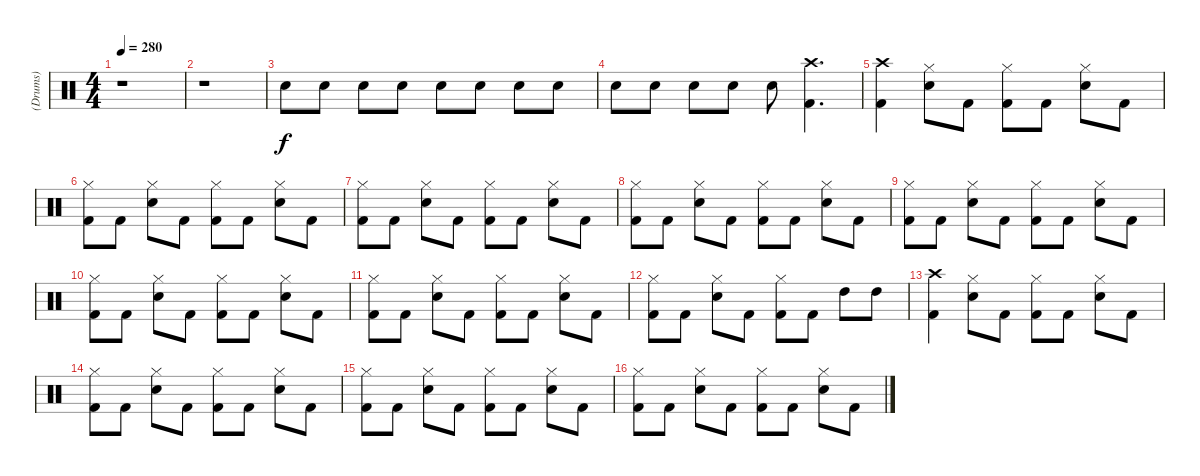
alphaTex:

\track ("(Drums)" "(Drums)") {instrument percussion}
\staff {score}
\articulation defaults
\ts (4 4)
\tempo 280
\clef neutral
\ks c
r.1{dy f} |
r.1 |
"Snare (hit) 2".8 "Snare (hit) 2".8 "Snare (hit) 2".8 "Snare (hit) 2".8 "Snare (hit) 2".8 "Snare (hit) 2".8 "Snare (hit) 2".8 "Snare (hit) 2".8 |
"Snare (hit) 2".8 "Snare (hit) 2".8 "Snare (hit) 2".8 "Snare (hit) 2".8 "Snare (hit) 2".8 ("Kick (hit) 2" "Crash high (hit)").4{d} |
("Kick (hit) 2" "Crash high (hit)").4 ("Hi-Hat (closed)" "Snare (hit) 2").8 "Kick (hit) 2".8 ("Hi-Hat (closed)" "Kick (hit) 2").8 "Kick (hit) 2".8 ("Hi-Hat (closed)" "Snare (hit) 2").8 "Kick (hit) 2".8 |
("Hi-Hat (closed)" "Kick (hit) 2").8 "Kick (hit) 2".8 ("Hi-Hat (closed)" "Snare (hit) 2").8 "Kick (hit) 2".8 ("Hi-Hat (closed)" "Kick (hit) 2").8 "Kick (hit) 2".8 ("Hi-Hat (closed)" "Snare (hit) 2").8 "Kick (hit) 2".8 |
("Hi-Hat (closed)" "Kick (hit) 2").8 "Kick (hit) 2".8 ("Hi-Hat (closed)" "Snare (hit) 2").8 "Kick (hit) 2".8 ("Hi-Hat (closed)" "Kick (hit) 2").8 "Kick (hit) 2".8 ("Hi-Hat (closed)" "Snare (hit) 2").8 "Kick (hit) 2".8 |
("Hi-Hat (closed)" "Kick (hit) 2").8 "Kick (hit) 2".8 ("Hi-Hat (closed)" "Snare (hit) 2").8 "Kick (hit) 2".8 ("Hi-Hat (closed)" "Kick (hit) 2").8 "Kick (hit) 2".8 ("Hi-Hat (closed)" "Snare (hit) 2").8 "Kick (hit) 2".8 |
("Hi-Hat (closed)" "Kick (hit) 2").8 "Kick (hit) 2".8 ("Hi-Hat (closed)" "Snare (hit) 2").8 "Kick (hit) 2".8 ("Hi-Hat (closed)" "Kick (hit) 2").8 "Kick (hit) 2".8 ("Hi-Hat (closed)" "Snare (hit) 2").8 "Kick (hit) 2".8 |
("Hi-Hat (closed)" "Kick (hit) 2").8 "Kick (hit) 2".8 ("Hi-Hat (closed)" "Snare (hit) 2").8 "Kick (hit) 2".8 ("Hi-Hat (closed)" "Kick (hit) 2").8 "Kick (hit) 2".8 ("Hi-Hat (closed)" "Snare (hit) 2").8 "Kick (hit) 2".8 |
("Hi-Hat (closed)" "Kick (hit) 2").8 "Kick (hit) 2".8 ("Hi-Hat (closed)" "Snare (hit) 2").8 "Kick (hit) 2".8 ("Hi-Hat (closed)" "Kick (hit) 2").8 "Kick (hit) 2".8 ("Hi-Hat (closed)" "Snare (hit) 2").8 "Kick (hit) 2".8 |
("Hi-Hat (closed)" "Kick (hit) 2").8 "Kick (hit) 2".8 ("Hi-Hat (closed)" "Snare (hit) 2").8 "Kick (hit) 2".8 ("Hi-Hat (closed)" "Kick (hit) 2").8 "Kick (hit) 2".8 "High Tom (hit)".8 "High Tom (hit)".8 |
("Kick (hit) 2" "Crash high (hit)").4 ("Hi-Hat (closed)" "Snare (hit) 2").8 "Kick (hit) 2".8 ("Hi-Hat (closed)" "Kick (hit) 2").8 "Kick (hit) 2".8 ("Hi-Hat (closed)" "Snare (hit) 2").8 "Kick (hit) 2".8 |
("Hi-Hat (closed)" "Kick (hit) 2").8 "Kick (hit) 2".8 ("Hi-Hat (closed)" "Snare (hit) 2").8 "Kick (hit) 2".8 ("Hi-Hat (closed)" "Kick (hit) 2").8 "Kick (hit) 2".8 ("Hi-Hat (closed)" "Snare (hit) 2").8 "Kick (hit) 2".8 |
("Hi-Hat (closed)" "Kick (hit) 2").8 "Kick (hit) 2".8 ("Hi-Hat (closed)" "Snare (hit) 2").8 "Kick (hit) 2".8 ("Hi-Hat (closed)" "Kick (hit) 2").8 "Kick (hit) 2".8 ("Hi-Hat (closed)" "Snare (hit) 2").8 "Kick (hit) 2".8 |
("Hi-Hat (closed)" "Kick (hit) 2").8 "Kick (hit) 2".8 ("Hi-Hat (closed)" "Snare (hit) 2").8 "Kick (hit) 2".8 ("Hi-Hat (closed)" "Kick (hit) 2").8 "Kick (hit) 2".8 ("Hi-Hat (closed)" "Snare (hit) 2").8 "Kick (hit) 2".8
